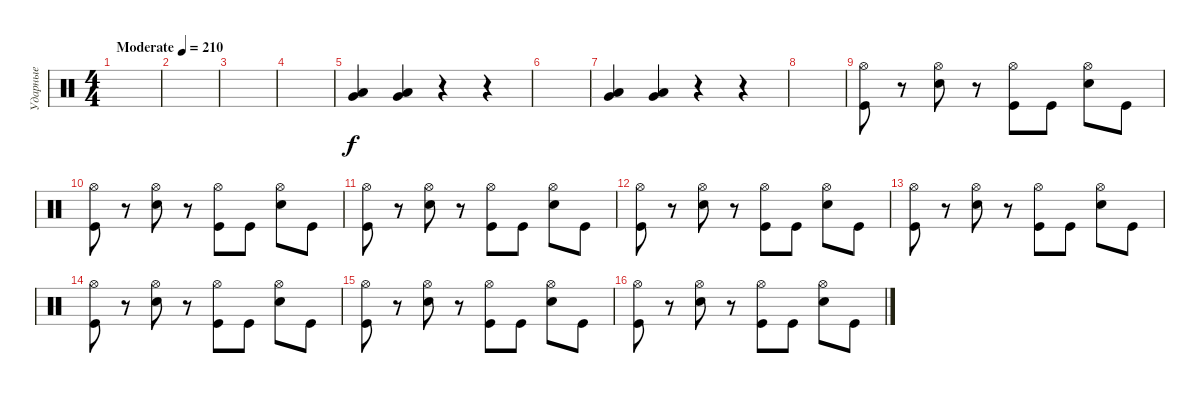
\track ("Ударные" "Ударные") {instrument percussion}
\staff {score}
\articulation defaults
\ts (4 4)
\tempo (210 "Moderate")
\clef neutral
\ks c
|
|
|
|
("Very Low Tom (hit)" "Low Floor Tom (hit)").4 ("Very Low Tom (hit)" "Low Floor Tom (hit)").4 r.4 r.4 |
|
("Very Low Tom (hit)" "Low Floor Tom (hit)").4 ("Very Low Tom (hit)" "Low Floor Tom (hit)").4 r.4 r.4 |
|
("Hi-Hat (open)" "Kick (hit)").8 r.8 ("Hi-Hat (open)" "Electric Snare (hit)").8 r.8 ("Hi-Hat (open)" "Kick (hit)").8 "Kick (hit)".8 ("Hi-Hat (open)" "Electric Snare (hit)").8 "Kick (hit)".8 |
("Hi-Hat (open)" "Kick (hit)").8 r.8 ("Hi-Hat (open)" "Electric Snare (hit)").8 r.8 ("Hi-Hat (open)" "Kick (hit)").8 "Kick (hit)".8 ("Hi-Hat (open)" "Electric Snare (hit)").8 "Kick (hit)".8 |
("Hi-Hat (open)" "Kick (hit)").8 r.8 ("Hi-Hat (open)" "Electric Snare (hit)").8 r.8 ("Hi-Hat (open)" "Kick (hit)").8 "Kick (hit)".8 ("Hi-Hat (open)" "Electric Snare (hit)").8 "Kick (hit)".8 |
("Hi-Hat (open)" "Kick (hit)").8 r.8 ("Hi-Hat (open)" "Electric Snare (hit)").8 r.8 ("Hi-Hat (open)" "Kick (hit)").8 "Kick (hit)".8 ("Hi-Hat (open)" "Electric Snare (hit)").8 "Kick (hit)".8 |
("Hi-Hat (open)" "Kick (hit)").8 r.8 ("Hi-Hat (open)" "Electric Snare (hit)").8 r.8 ("Hi-Hat (open)" "Kick (hit)").8 "Kick (hit)".8 ("Hi-Hat (open)" "Electric Snare (hit)").8 "Kick (hit)".8 |
("Hi-Hat (open)" "Kick (hit)").8 r.8 ("Hi-Hat (open)" "Electric Snare (hit)").8 r.8 ("Hi-Hat (open)" "Kick (hit)").8 "Kick (hit)".8 ("Hi-Hat (open)" "Electric Snare (hit)").8 "Kick (hit)".8 |
("Hi-Hat (open)" "Kick (hit)").8 r.8 ("Hi-Hat (open)" "Electric Snare (hit)").8 r.8 ("Hi-Hat (open)" "Kick (hit)").8 "Kick (hit)".8 ("Hi-Hat (open)" "Electric Snare (hit)").8 "Kick (hit)".8 |
("Hi-Hat (open)" "Kick (hit)").8 r.8 ("Hi-Hat (open)" "Electric Snare (hit)").8 r.8 ("Hi-Hat (open)" "Kick (hit)").8 "Kick (hit)".8 ("Hi-Hat (open)" "Electric Snare (hit)").8 "Kick (hit)".8
